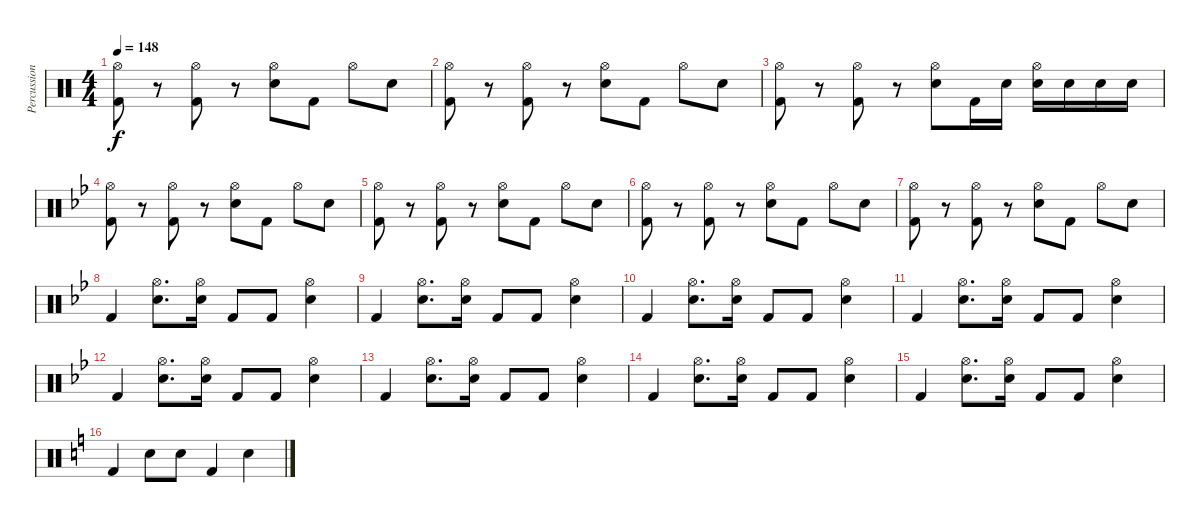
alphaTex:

\track ("Percussion" "Percussion") {instrument percussion}
\staff {score}
\articulation defaults
\ts (4 4)
\tempo 148
\clef neutral
\ks c
("Hi-Hat (open)" "Kick (hit) 2").8{dy f} r.8 ("Hi-Hat (open)" "Kick (hit) 2").8 r.8 ("Hi-Hat (open)" "Electric Snare (hit)").8 "Kick (hit) 2".8 "Hi-Hat (open)".8 "Electric Snare (hit)".8 |
("Hi-Hat (open)" "Kick (hit) 2").8 r.8 ("Hi-Hat (open)" "Kick (hit) 2").8 r.8 ("Hi-Hat (open)" "Electric Snare (hit)").8 "Kick (hit) 2".8 "Hi-Hat (open)".8 "Electric Snare (hit)".8 |
("Hi-Hat (open)" "Kick (hit) 2").8 r.8 ("Hi-Hat (open)" "Kick (hit) 2").8 r.8 ("Hi-Hat (open)" "Electric Snare (hit)").8 "Kick (hit) 2".16 "Electric Snare (hit)".16 ("Hi-Hat (open)" "Electric Snare (hit)").16 "Electric Snare (hit)".16 "Electric Snare (hit)".16 "Electric Snare (hit)".16 |
\ks bb
("Hi-Hat (open)" "Kick (hit) 2").8 r.8 ("Hi-Hat (open)" "Kick (hit) 2").8 r.8 ("Hi-Hat (open)" "Electric Snare (hit)").8 "Kick (hit) 2".8 "Hi-Hat (open)".8 "Electric Snare (hit)".8 |
("Hi-Hat (open)" "Kick (hit) 2").8 r.8 ("Hi-Hat (open)" "Kick (hit) 2").8 r.8 ("Hi-Hat (open)" "Electric Snare (hit)").8 "Kick (hit) 2".8 "Hi-Hat (open)".8 "Electric Snare (hit)".8 |
("Hi-Hat (open)" "Kick (hit) 2").8 r.8 ("Hi-Hat (open)" "Kick (hit) 2").8 r.8 ("Hi-Hat (open)" "Electric Snare (hit)").8 "Kick (hit) 2".8 "Hi-Hat (open)".8 "Electric Snare (hit)".8 |
("Hi-Hat (open)" "Kick (hit) 2").8 r.8 ("Hi-Hat (open)" "Kick (hit) 2").8 r.8 ("Hi-Hat (open)" "Electric Snare (hit)").8 "Kick (hit) 2".8 "Hi-Hat (open)".8 "Electric Snare (hit)".8 |
"Kick (hit) 2".4 ("Hi-Hat (open)" "Electric Snare (hit)").8{d} ("Hi-Hat (open)" "Electric Snare (hit)").16 "Kick (hit) 2".8 "Kick (hit) 2".8 ("Hi-Hat (open)" "Electric Snare (hit)").4 |
"Kick (hit) 2".4 ("Hi-Hat (open)" "Electric Snare (hit)").8{d} ("Hi-Hat (open)" "Electric Snare (hit)").16 "Kick (hit) 2".8 "Kick (hit) 2".8 ("Hi-Hat (open)" "Electric Snare (hit)").4 |
"Kick (hit) 2".4 ("Hi-Hat (open)" "Electric Snare (hit)").8{d} ("Hi-Hat (open)" "Electric Snare (hit)").16 "Kick (hit) 2".8 "Kick (hit) 2".8 ("Hi-Hat (open)" "Electric Snare (hit)").4 |
"Kick (hit) 2".4 ("Hi-Hat (open)" "Electric Snare (hit)").8{d} ("Hi-Hat (open)" "Electric Snare (hit)").16 "Kick (hit) 2".8 "Kick (hit) 2".8 ("Hi-Hat (open)" "Electric Snare (hit)").4 |
"Kick (hit) 2".4 ("Hi-Hat (open)" "Electric Snare (hit)").8{d} ("Hi-Hat (open)" "Electric Snare (hit)").16 "Kick (hit) 2".8 "Kick (hit) 2".8 ("Hi-Hat (open)" "Electric Snare (hit)").4 |
"Kick (hit) 2".4 ("Hi-Hat (open)" "Electric Snare (hit)").8{d} ("Hi-Hat (open)" "Electric Snare (hit)").16 "Kick (hit) 2".8 "Kick (hit) 2".8 ("Hi-Hat (open)" "Electric Snare (hit)").4 |
"Kick (hit) 2".4 ("Hi-Hat (open)" "Electric Snare (hit)").8{d} ("Hi-Hat (open)" "Electric Snare (hit)").16 "Kick (hit) 2".8 "Kick (hit) 2".8 ("Hi-Hat (open)" "Electric Snare (hit)").4 |
"Kick (hit) 2".4 ("Hi-Hat (open)" "Electric Snare (hit)").8{d} ("Hi-Hat (open)" "Electric Snare (hit)").16 "Kick (hit) 2".8 "Kick (hit) 2".8 ("Hi-Hat (open)" "Electric Snare (hit)").4 |
\ks c "Kick (hit) 2".4 "Electric Snare (hit)".8 "Electric Snare (hit)".8 "Kick (hit) 2".4 "Electric Snare (hit)".4
